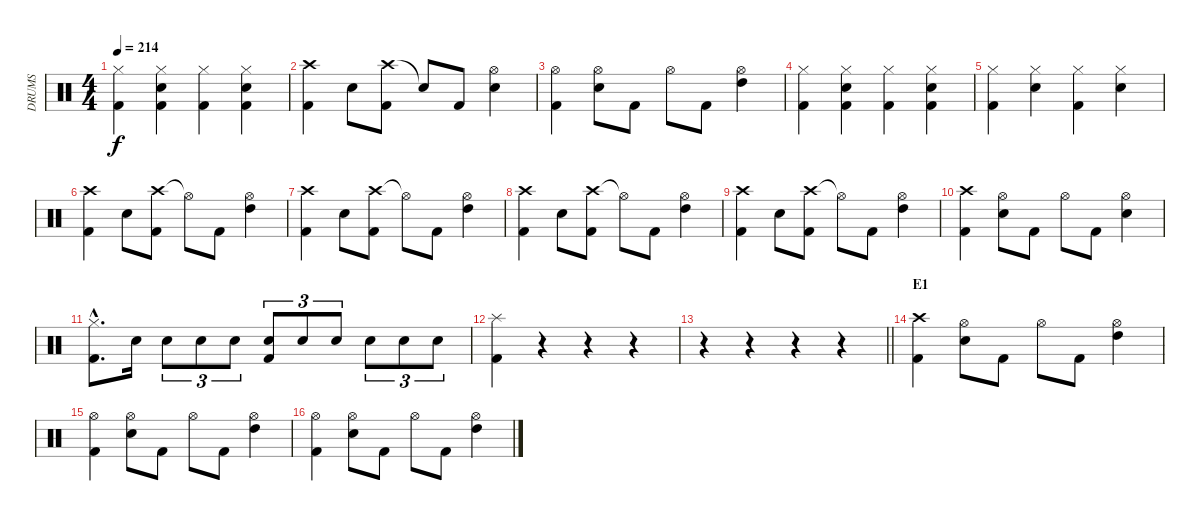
\track ("DRUMS" "DRUMS") {instrument percussion}
\staff {score}
\articulation defaults
\ts (4 4)
\tempo 214
\clef neutral
\ks c
("Hi-Hat (closed)" "Kick (hit) 2").4{dy f} ("Hi-Hat (closed)" "Kick (hit) 2" "Snare (hit) 2").4 ("Hi-Hat (closed)" "Kick (hit) 2").4 ("Hi-Hat (closed)" "Kick (hit) 2" "Snare (hit) 2").4 |
("Crash high (hit)" "Kick (hit) 2").4 "Snare (hit) 2".8 ("Crash high (hit)" "Kick (hit) 2").8 "Snare (hit)"{t}.8 "Kick (hit) 2".8 ("Hi-Hat (open)" "Snare (hit) 2").4 |
("Hi-Hat (open)" "Kick (hit) 2").4 ("Hi-Hat (open)" "Snare (hit) 2").8 "Kick (hit) 2".8 "Hi-Hat (open)".8 "Kick (hit) 2".8 ("Hi-Hat (open)" "High Tom (hit)").4 |
("Hi-Hat (closed)" "Kick (hit) 2").4 ("Hi-Hat (closed)" "Kick (hit) 2" "Snare (hit) 2").4 ("Hi-Hat (closed)" "Kick (hit) 2").4 ("Hi-Hat (closed)" "Kick (hit) 2" "Snare (hit) 2").4 |
("Hi-Hat (closed)" "Kick (hit) 2").4 ("Hi-Hat (closed)" "Snare (hit) 2").4 ("Hi-Hat (closed)" "Kick (hit) 2").4 ("Hi-Hat (closed)" "Snare (hit) 2").4 |
("Crash high (hit)" "Kick (hit) 2").4 "Snare (hit) 2".8 ("Crash high (hit)" "Kick (hit) 2").8 "Hi-Hat (open)"{t}.8 "Kick (hit) 2".8 ("Hi-Hat (open)" "High Tom (hit)").4 |
("Crash high (hit)" "Kick (hit) 2").4 "Snare (hit) 2".8 ("Crash high (hit)" "Kick (hit) 2").8 "Hi-Hat (open)"{t}.8 "Kick (hit) 2".8 ("Hi-Hat (open)" "High Tom (hit)").4 |
("Crash high (hit)" "Kick (hit) 2").4 "Snare (hit) 2".8 ("Crash high (hit)" "Kick (hit) 2").8 "Hi-Hat (open)"{t}.8 "Kick (hit) 2".8 ("Hi-Hat (open)" "High Tom (hit)").4 |
("Crash high (hit)" "Kick (hit) 2").4 "Snare (hit) 2".8 ("Crash high (hit)" "Kick (hit) 2").8 "Hi-Hat (open)"{t}.8 "Kick (hit) 2".8 ("Hi-Hat (open)" "High Tom (hit)").4 |
("Crash high (hit)" "Kick (hit) 2").4 ("Hi-Hat (open)" "Snare (hit) 2").8 "Kick (hit) 2".8 "Hi-Hat (open)".8 "Kick (hit) 2".8 ("Hi-Hat (open)" "Snare (hit) 2").4 |
("Hi-Hat (closed)"{hac} "Kick (hit) 2"{hac}).8{d} "Snare (hit) 2".16 "Snare (hit) 2".8{tu (3 2)} "Snare (hit) 2".8{tu (3 2)} "Snare (hit) 2".8{tu (3 2)} ("Snare (hit) 2" "Kick (hit) 2").8{tu (3 2)} "Snare (hit) 2".8{tu (3 2)} "Snare (hit) 2".8{tu (3 2)} "Snare (hit) 2".8{tu (3 2)} "Snare (hit) 2".8{tu (3 2)} "Snare (hit) 2".8{tu (3 2)} |
("Splash (hit)" "Kick (hit) 2").4 r.4 r.4 r.4 |
\barLineRight lightlight
r.4 r.4 r.4 r.4 |
\section ("" "E1")
("Crash high (hit)" "Kick (hit) 2").4 ("Hi-Hat (open)" "Snare (hit) 2").8 "Kick (hit) 2".8 "Hi-Hat (open)".8 "Kick (hit) 2".8 ("Hi-Hat (open)" "High Tom (hit)").4 |
("Hi-Hat (open)" "Kick (hit) 2").4 ("Hi-Hat (open)" "Snare (hit) 2").8 "Kick (hit) 2".8 "Hi-Hat (open)".8 "Kick (hit) 2".8 ("Hi-Hat (open)" "High Tom (hit)").4 |
("Hi-Hat (open)" "Kick (hit) 2").4 ("Hi-Hat (open)" "Snare (hit) 2").8 "Kick (hit) 2".8 "Hi-Hat (open)".8 "Kick (hit) 2".8 ("Hi-Hat (open)" "High Tom (hit)").4
